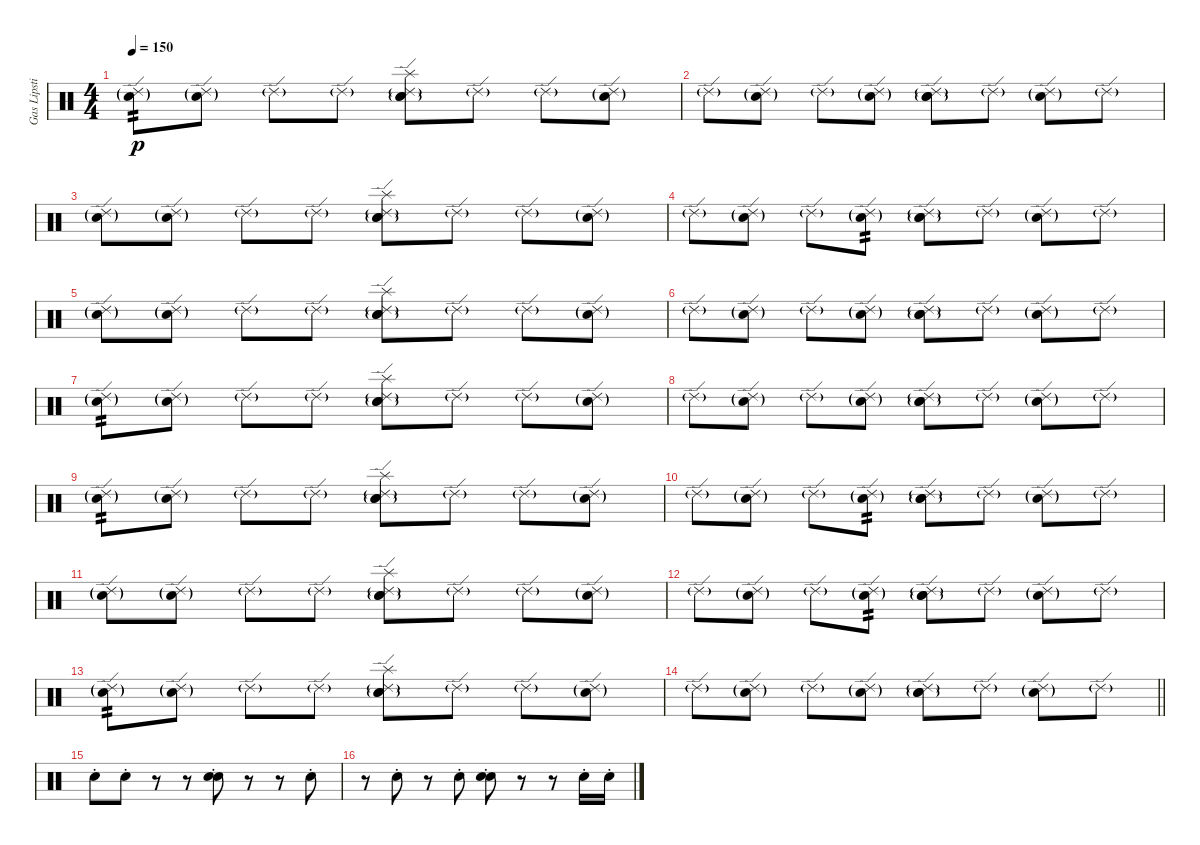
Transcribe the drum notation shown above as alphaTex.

\track ("Gas Lipstick" "Gas Lipsti") {instrument percussion}
\staff {score}
\articulation defaults
\ts (4 4)
\tempo 150
\clef neutral
\ks c
("Ride (edge) 2"{g} "Snare (hit) 2"{g}).8{tp 2 dy p} ("Ride (edge) 2"{g} "Snare (hit) 2"{g}).8 "Ride (edge) 2"{g}.8 "Ride (edge) 2"{g}.8 ("Splash (hit)" "Ride (edge) 2"{g} "Hand Clap (hit)" "Electric Snare (hit)"{g}).8 "Ride (edge) 2"{g}.8 "Ride (edge) 2"{g}.8 ("Ride (edge) 2"{g} "Snare (hit) 2"{g}).8 |
"Ride (edge) 2"{g}.8 ("Ride (edge) 2"{g} "Snare (hit) 2"{g}).8 "Ride (edge) 2"{g}.8 ("Ride (edge) 2"{g} "Snare (hit) 2"{g}).8 ("Ride (edge) 2"{g} "Hand Clap (hit)" "Electric Snare (hit)"{g}).8 "Ride (edge) 2"{g}.8 ("Ride (edge) 2"{g} "Snare (hit) 2"{g}).8 "Ride (edge) 2"{g}.8 |
("Ride (edge) 2"{g} "Snare (hit) 2"{g}).8 ("Ride (edge) 2"{g} "Snare (hit) 2"{g}).8 "Ride (edge) 2"{g}.8 "Ride (edge) 2"{g}.8 ("Splash (hit)" "Ride (edge) 2"{g} "Hand Clap (hit)" "Electric Snare (hit)"{g}).8 "Ride (edge) 2"{g}.8 "Ride (edge) 2"{g}.8 ("Ride (edge) 2"{g} "Snare (hit) 2"{g}).8 |
"Ride (edge) 2"{g}.8 ("Ride (edge) 2"{g} "Snare (hit) 2"{g}).8 "Ride (edge) 2"{g}.8 ("Ride (edge) 2"{g} "Snare (hit) 2"{g}).8{tp 2} ("Ride (edge) 2"{g} "Hand Clap (hit)" "Electric Snare (hit)"{g}).8 "Ride (edge) 2"{g}.8 ("Ride (edge) 2"{g} "Snare (hit) 2"{g}).8 "Ride (edge) 2"{g}.8 |
("Ride (edge) 2"{g} "Snare (hit) 2"{g}).8 ("Ride (edge) 2"{g} "Snare (hit) 2"{g}).8 "Ride (edge) 2"{g}.8 "Ride (edge) 2"{g}.8 ("Splash (hit)" "Ride (edge) 2"{g} "Hand Clap (hit)" "Electric Snare (hit)"{g}).8 "Ride (edge) 2"{g}.8 "Ride (edge) 2"{g}.8 ("Ride (edge) 2"{g} "Snare (hit) 2"{g}).8 |
"Ride (edge) 2"{g}.8 ("Ride (edge) 2"{g} "Snare (hit) 2"{g}).8 "Ride (edge) 2"{g}.8 ("Ride (edge) 2"{g} "Snare (hit) 2"{g}).8 ("Ride (edge) 2"{g} "Hand Clap (hit)" "Electric Snare (hit)"{g}).8 "Ride (edge) 2"{g}.8 ("Ride (edge) 2"{g} "Snare (hit) 2"{g}).8 "Ride (edge) 2"{g}.8 |
("Ride (edge) 2"{g} "Snare (hit) 2"{g}).8{tp 2} ("Ride (edge) 2"{g} "Snare (hit) 2"{g}).8 "Ride (edge) 2"{g}.8 "Ride (edge) 2"{g}.8 ("Splash (hit)" "Ride (edge) 2"{g} "Hand Clap (hit)" "Electric Snare (hit)"{g}).8 "Ride (edge) 2"{g}.8 "Ride (edge) 2"{g}.8 ("Ride (edge) 2"{g} "Snare (hit) 2"{g}).8 |
"Ride (edge) 2"{g}.8 ("Ride (edge) 2"{g} "Snare (hit) 2"{g}).8 "Ride (edge) 2"{g}.8 ("Ride (edge) 2"{g} "Snare (hit) 2"{g}).8 ("Ride (edge) 2"{g} "Hand Clap (hit)" "Electric Snare (hit)"{g}).8 "Ride (edge) 2"{g}.8 ("Ride (edge) 2"{g} "Snare (hit) 2"{g}).8 "Ride (edge) 2"{g}.8 |
("Ride (edge) 2"{g} "Snare (hit) 2"{g}).8{tp 2} ("Ride (edge) 2"{g} "Snare (hit) 2"{g}).8 "Ride (edge) 2"{g}.8 "Ride (edge) 2"{g}.8 ("Splash (hit)" "Ride (edge) 2"{g} "Hand Clap (hit)" "Electric Snare (hit)"{g}).8 "Ride (edge) 2"{g}.8 "Ride (edge) 2"{g}.8 ("Ride (edge) 2"{g} "Snare (hit) 2"{g}).8 |
"Ride (edge) 2"{g}.8 ("Ride (edge) 2"{g} "Snare (hit) 2"{g}).8 "Ride (edge) 2"{g}.8 ("Ride (edge) 2"{g} "Snare (hit) 2"{g}).8{tp 2} ("Ride (edge) 2"{g} "Hand Clap (hit)" "Electric Snare (hit)"{g}).8 "Ride (edge) 2"{g}.8 ("Ride (edge) 2"{g} "Snare (hit) 2"{g}).8 "Ride (edge) 2"{g}.8 |
("Ride (edge) 2"{g} "Snare (hit) 2"{g}).8 ("Ride (edge) 2"{g} "Snare (hit) 2"{g}).8 "Ride (edge) 2"{g}.8 "Ride (edge) 2"{g}.8 ("Splash (hit)" "Ride (edge) 2"{g} "Hand Clap (hit)" "Electric Snare (hit)"{g}).8 "Ride (edge) 2"{g}.8 "Ride (edge) 2"{g}.8 ("Ride (edge) 2"{g} "Snare (hit) 2"{g}).8 |
"Ride (edge) 2"{g}.8 ("Ride (edge) 2"{g} "Snare (hit) 2"{g}).8 "Ride (edge) 2"{g}.8 ("Ride (edge) 2"{g} "Snare (hit) 2"{g}).8{tp 2} ("Ride (edge) 2"{g} "Hand Clap (hit)" "Electric Snare (hit)"{g}).8 "Ride (edge) 2"{g}.8 ("Ride (edge) 2"{g} "Snare (hit) 2"{g}).8 "Ride (edge) 2"{g}.8 |
("Ride (edge) 2"{g} "Snare (hit) 2"{g}).8{tp 2} ("Ride (edge) 2"{g} "Snare (hit) 2"{g}).8 "Ride (edge) 2"{g}.8 "Ride (edge) 2"{g}.8 ("Splash (hit)" "Ride (edge) 2"{g} "Hand Clap (hit)" "Electric Snare (hit)"{g}).8 "Ride (edge) 2"{g}.8 "Ride (edge) 2"{g}.8 ("Ride (edge) 2"{g} "Snare (hit) 2"{g}).8 |
\barLineRight lightlight "Ride (edge) 2"{g}.8
("Ride (edge) 2"{g} "Snare (hit) 2"{g}).8 "Ride (edge) 2"{g}.8 ("Ride (edge) 2"{g} "Snare (hit) 2"{g}).8 ("Ride (edge) 2"{g} "Hand Clap (hit)" "Electric Snare (hit)"{g}).8 "Ride (edge) 2"{g}.8 ("Ride (edge) 2"{g} "Snare (hit) 2"{g}).8 "Ride (edge) 2"{g}.8 |
"Electric Snare (hit)"{st}.8 "Electric Snare (hit)"{st}.8 r.8 r.8 ("Hand Clap (hit)"{st} "Electric Snare (hit)"{st}).8 r.8 r.8 "Electric Snare (hit)"{st}.8 |
r.8 "Electric Snare (hit)"{st}.8 r.8 "Electric Snare (hit)"{st}.8 ("Hand Clap (hit)"{st} "Electric Snare (hit)"{st}).8 r.8 r.8 "Electric Snare (hit)"{st}.16 "Electric Snare (hit)"{st}.16
